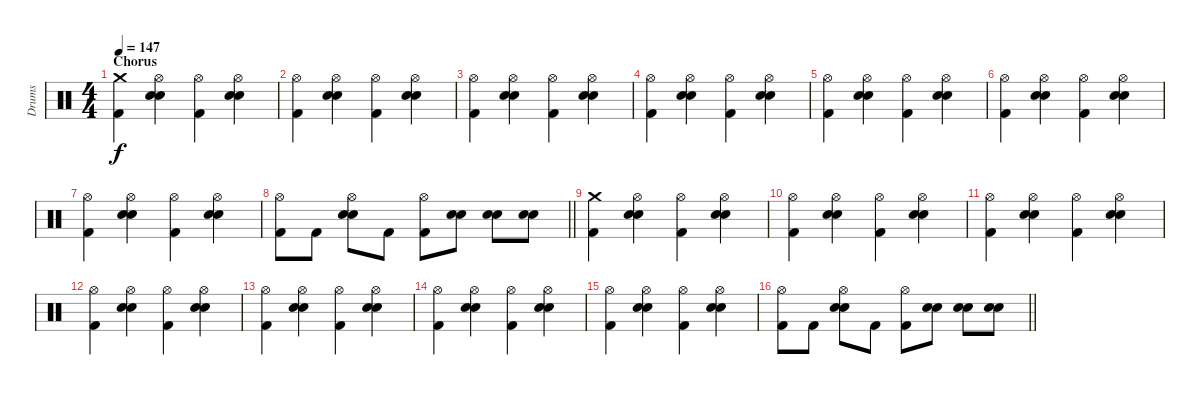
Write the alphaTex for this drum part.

\track ("Drums" "Drums") {instrument percussion}
\staff {score}
\articulation defaults
\ts (4 4)
\section ("" "Chorus")
\tempo 147
\clef neutral
\ks c
("Crash medium (hit)" "Kick (hit) 2").4{dy f} ("Hi-Hat (open)" "Electric Snare (hit)" "Snare (hit) 2").4 ("Hi-Hat (open)" "Kick (hit) 2").4 ("Hi-Hat (open)" "Electric Snare (hit)" "Snare (hit) 2").4 |
("Hi-Hat (open)" "Kick (hit) 2").4 ("Hi-Hat (open)" "Electric Snare (hit)" "Snare (hit) 2").4 ("Hi-Hat (open)" "Kick (hit) 2").4 ("Hi-Hat (open)" "Electric Snare (hit)" "Snare (hit) 2").4 |
("Hi-Hat (open)" "Kick (hit) 2").4 ("Hi-Hat (open)" "Electric Snare (hit)" "Snare (hit) 2").4 ("Hi-Hat (open)" "Kick (hit) 2").4 ("Hi-Hat (open)" "Electric Snare (hit)" "Snare (hit) 2").4 |
("Hi-Hat (open)" "Kick (hit) 2").4 ("Hi-Hat (open)" "Electric Snare (hit)" "Snare (hit) 2").4 ("Hi-Hat (open)" "Kick (hit) 2").4 ("Hi-Hat (open)" "Electric Snare (hit)" "Snare (hit) 2").4 |
("Hi-Hat (open)" "Kick (hit) 2").4 ("Hi-Hat (open)" "Electric Snare (hit)" "Snare (hit) 2").4 ("Hi-Hat (open)" "Kick (hit) 2").4 ("Hi-Hat (open)" "Electric Snare (hit)" "Snare (hit) 2").4 |
("Hi-Hat (open)" "Kick (hit) 2").4 ("Hi-Hat (open)" "Electric Snare (hit)" "Snare (hit) 2").4 ("Hi-Hat (open)" "Kick (hit) 2").4 ("Hi-Hat (open)" "Electric Snare (hit)" "Snare (hit) 2").4 |
("Hi-Hat (open)" "Kick (hit) 2").4 ("Hi-Hat (open)" "Electric Snare (hit)" "Snare (hit) 2").4 ("Hi-Hat (open)" "Kick (hit) 2").4 ("Hi-Hat (open)" "Electric Snare (hit)" "Snare (hit) 2").4 |
\barLineRight lightlight
("Hi-Hat (open)" "Kick (hit) 2").8 "Kick (hit) 2".8 ("Hi-Hat (open)" "Electric Snare (hit)" "Snare (hit) 2").8 "Kick (hit) 2".8 ("Hi-Hat (open)" "Kick (hit) 2").8 ("Electric Snare (hit)" "Snare (hit) 2").8 ("Electric Snare (hit)" "Snare (hit) 2").8 ("Electric Snare (hit)" "Snare (hit) 2").8 |
\section ("" "")
("Crash medium (hit)" "Kick (hit) 2").4 ("Hi-Hat (open)" "Electric Snare (hit)" "Snare (hit) 2").4 ("Hi-Hat (open)" "Kick (hit) 2").4 ("Hi-Hat (open)" "Electric Snare (hit)" "Snare (hit) 2").4 |
("Hi-Hat (open)" "Kick (hit) 2").4 ("Hi-Hat (open)" "Electric Snare (hit)" "Snare (hit) 2").4 ("Hi-Hat (open)" "Kick (hit) 2").4 ("Hi-Hat (open)" "Electric Snare (hit)" "Snare (hit) 2").4 |
("Hi-Hat (open)" "Kick (hit) 2").4 ("Hi-Hat (open)" "Electric Snare (hit)" "Snare (hit) 2").4 ("Hi-Hat (open)" "Kick (hit) 2").4 ("Hi-Hat (open)" "Electric Snare (hit)" "Snare (hit) 2").4 |
("Hi-Hat (open)" "Kick (hit) 2").4 ("Hi-Hat (open)" "Electric Snare (hit)" "Snare (hit) 2").4 ("Hi-Hat (open)" "Kick (hit) 2").4 ("Hi-Hat (open)" "Electric Snare (hit)" "Snare (hit) 2").4 |
("Hi-Hat (open)" "Kick (hit) 2").4 ("Hi-Hat (open)" "Electric Snare (hit)" "Snare (hit) 2").4 ("Hi-Hat (open)" "Kick (hit) 2").4 ("Hi-Hat (open)" "Electric Snare (hit)" "Snare (hit) 2").4 |
("Hi-Hat (open)" "Kick (hit) 2").4 ("Hi-Hat (open)" "Electric Snare (hit)" "Snare (hit) 2").4 ("Hi-Hat (open)" "Kick (hit) 2").4 ("Hi-Hat (open)" "Electric Snare (hit)" "Snare (hit) 2").4 |
("Hi-Hat (open)" "Kick (hit) 2").4 ("Hi-Hat (open)" "Electric Snare (hit)" "Snare (hit) 2").4 ("Hi-Hat (open)" "Kick (hit) 2").4 ("Hi-Hat (open)" "Electric Snare (hit)" "Snare (hit) 2").4 |
\barLineRight lightlight
("Hi-Hat (open)" "Kick (hit) 2").8 "Kick (hit) 2".8 ("Hi-Hat (open)" "Electric Snare (hit)" "Snare (hit) 2").8 "Kick (hit) 2".8 ("Hi-Hat (open)" "Kick (hit) 2").8 ("Electric Snare (hit)" "Snare (hit) 2").8 ("Electric Snare (hit)" "Snare (hit) 2").8 ("Electric Snare (hit)" "Snare (hit) 2").8
